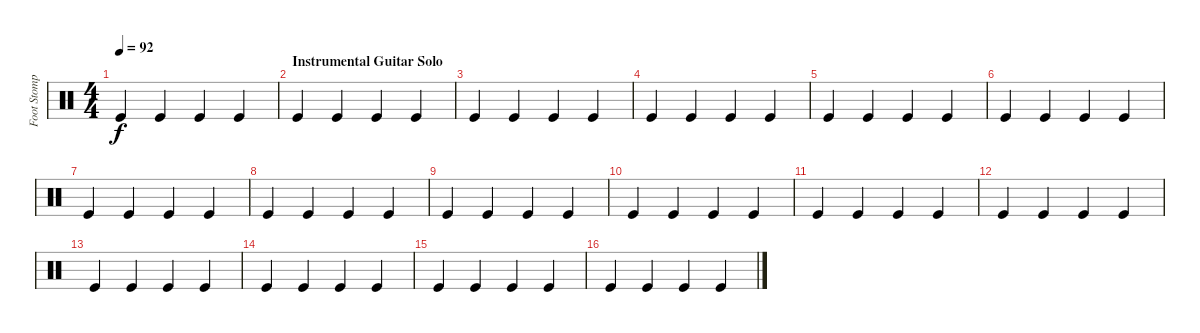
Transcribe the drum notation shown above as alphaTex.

\track ("Foot Stomp" "Foot Stomp") {instrument percussion}
\staff {score}
\articulation defaults
\ts (4 4)
\tempo 92
\clef neutral
\ks c "Kick (hit)".4{dy f} "Kick (hit)".4 "Kick (hit)".4 "Kick (hit)".4
|
\section ("" "Instrumental Guitar Solo")
"Kick (hit)".4 "Kick (hit)".4 "Kick (hit)".4 "Kick (hit)".4 |
"Kick (hit)".4 "Kick (hit)".4 "Kick (hit)".4 "Kick (hit)".4 |
"Kick (hit)".4 "Kick (hit)".4 "Kick (hit)".4 "Kick (hit)".4 |
"Kick (hit)".4 "Kick (hit)".4 "Kick (hit)".4 "Kick (hit)".4 |
"Kick (hit)".4 "Kick (hit)".4 "Kick (hit)".4 "Kick (hit)".4 |
"Kick (hit)".4 "Kick (hit)".4 "Kick (hit)".4 "Kick (hit)".4 |
"Kick (hit)".4 "Kick (hit)".4 "Kick (hit)".4 "Kick (hit)".4 |
"Kick (hit)".4 "Kick (hit)".4 "Kick (hit)".4 "Kick (hit)".4 |
"Kick (hit)".4 "Kick (hit)".4 "Kick (hit)".4 "Kick (hit)".4 |
"Kick (hit)".4 "Kick (hit)".4 "Kick (hit)".4 "Kick (hit)".4 |
"Kick (hit)".4 "Kick (hit)".4 "Kick (hit)".4 "Kick (hit)".4 |
"Kick (hit)".4 "Kick (hit)".4 "Kick (hit)".4 "Kick (hit)".4 |
"Kick (hit)".4 "Kick (hit)".4 "Kick (hit)".4 "Kick (hit)".4 |
"Kick (hit)".4 "Kick (hit)".4 "Kick (hit)".4 "Kick (hit)".4 |
"Kick (hit)".4 "Kick (hit)".4 "Kick (hit)".4 "Kick (hit)".4
